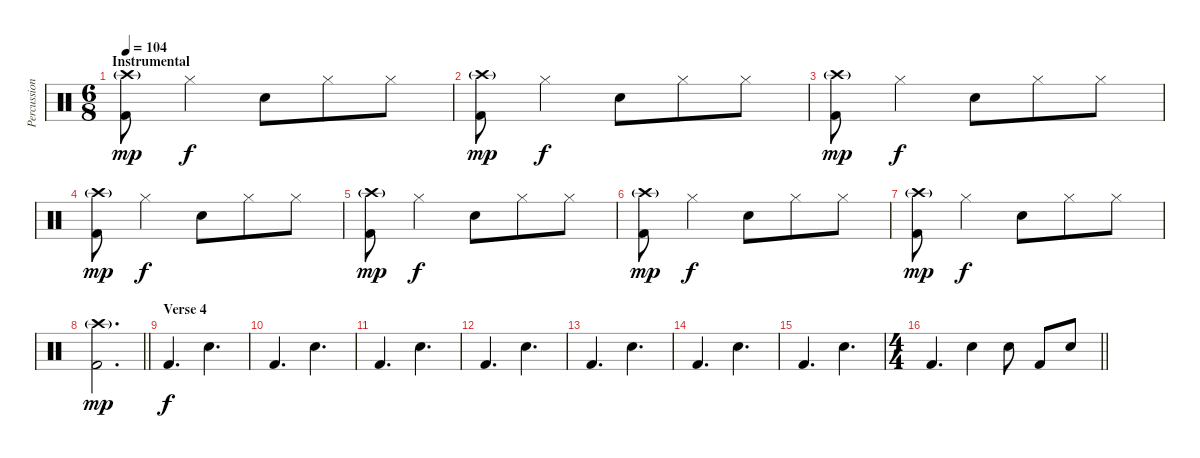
\track ("Percussion" "Percussion") {instrument percussion}
\staff {score}
\articulation defaults
\ts (6 8)
\section ("" "Instrumental")
\tempo 104
\clef neutral
\ks c
("Crash high (hit)"{g} "Kick (hit) 2").8{dy mp} "Hi-Hat (closed)".4{dy f} "Snare (hit) 2".8 "Hi-Hat (closed)".8 "Hi-Hat (closed)".8 |
("Crash high (hit)"{g} "Kick (hit) 2").8{dy mp} "Hi-Hat (closed)".4{dy f} "Snare (hit) 2".8 "Hi-Hat (closed)".8 "Hi-Hat (closed)".8 |
("Crash high (hit)"{g} "Kick (hit) 2").8{dy mp} "Hi-Hat (closed)".4{dy f} "Snare (hit) 2".8 "Hi-Hat (closed)".8 "Hi-Hat (closed)".8 |
("Crash high (hit)"{g} "Kick (hit) 2").8{dy mp} "Hi-Hat (closed)".4{dy f} "Snare (hit) 2".8 "Hi-Hat (closed)".8 "Hi-Hat (closed)".8 |
("Crash high (hit)"{g} "Kick (hit) 2").8{dy mp} "Hi-Hat (closed)".4{dy f} "Snare (hit) 2".8 "Hi-Hat (closed)".8 "Hi-Hat (closed)".8 |
("Crash high (hit)"{g} "Kick (hit) 2").8{dy mp} "Hi-Hat (closed)".4{dy f} "Snare (hit) 2".8 "Hi-Hat (closed)".8 "Hi-Hat (closed)".8 |
("Crash high (hit)"{g} "Kick (hit) 2").8{dy mp} "Hi-Hat (closed)".4{dy f} "Snare (hit) 2".8 "Hi-Hat (closed)".8 "Hi-Hat (closed)".8 |
\barLineRight lightlight
("Crash high (hit)"{g} "Kick (hit) 2").2{d dy mp} |
\section ("" "Verse 4")
"Kick (hit) 2".4{d dy f} "Snare (hit) 2".4{d} |
"Kick (hit) 2".4{d} "Snare (hit) 2".4{d} |
"Kick (hit) 2".4{d} "Snare (hit) 2".4{d} |
"Kick (hit) 2".4{d} "Snare (hit) 2".4{d} |
"Kick (hit) 2".4{d} "Snare (hit) 2".4{d} |
"Kick (hit) 2".4{d} "Snare (hit) 2".4{d} |
"Kick (hit) 2".4{d} "Snare (hit) 2".4{d} |
\ts (4 4)
\barLineRight lightlight "Kick (hit) 2".4{d} "Snare (hit) 2".4 "Snare (hit) 2".8 "Kick (hit) 2".8 "Snare (hit) 2".8
